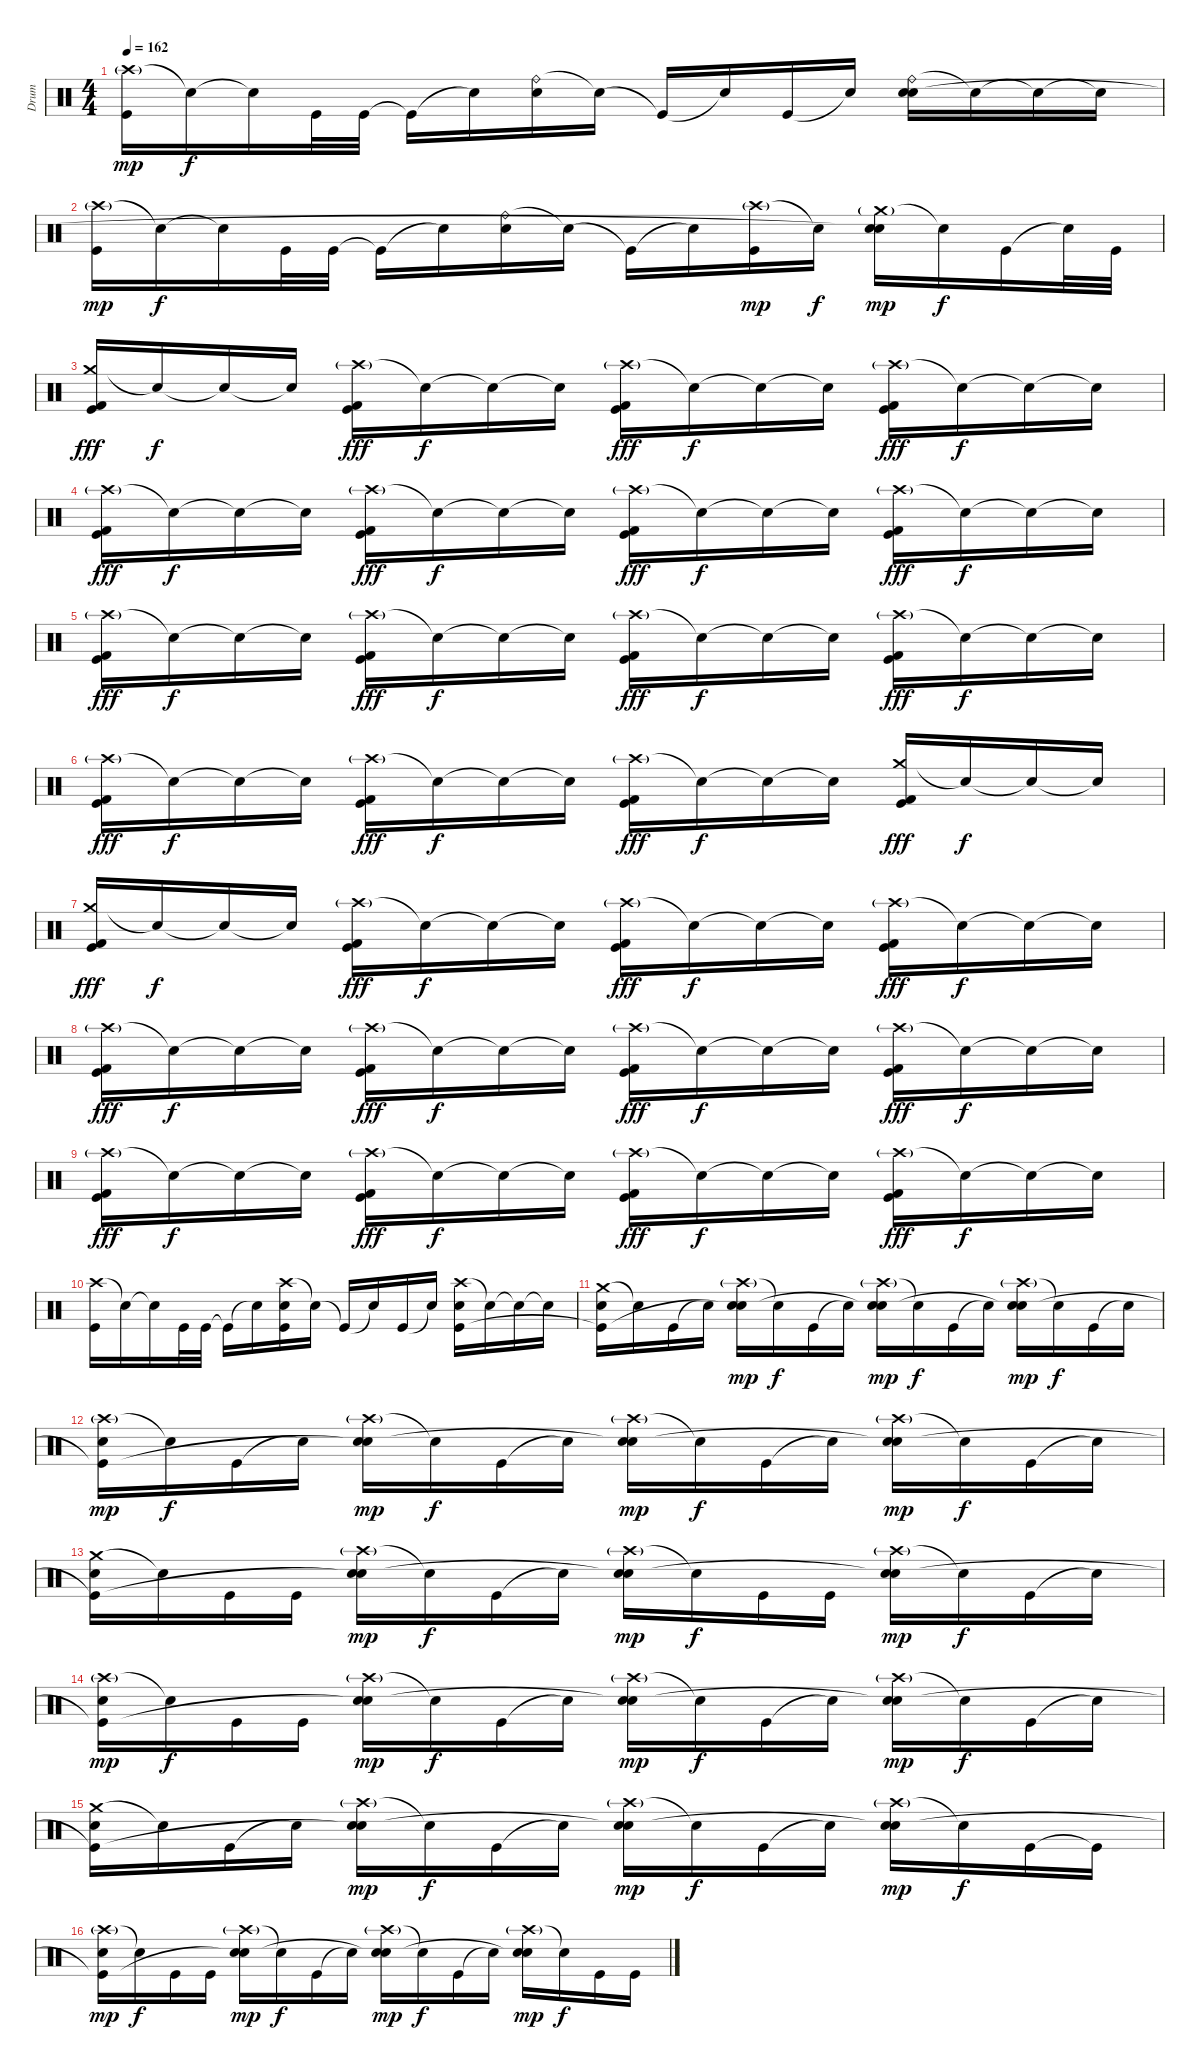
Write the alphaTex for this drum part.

\track ("Drum" "Drum") {instrument percussion}
\staff {score}
\articulation defaults
\ts (4 4)
\tempo 162
\clef neutral
\ks c
("Crash high (hit)"{g} "Kick (hit)").16{dy mp} "Snare (hit)"{t}.16{dy f} "Snare (hit)"{t}.16 "Kick (hit)".32 "Kick (hit)".32 "Kick (hit)"{t}.16 "Snare (hit)"{t}.16 ("Ride (bell)" "Electric Snare (hit)").16 "Snare (hit)"{t}.16 "Kick (hit)"{t}.16 "Snare (hit)"{t}.16 "Kick (hit)".16 "Snare (hit)"{t}.16 ("Ride (bell)" "Electric Snare (hit)" "Snare (hit)"{t}).16 "Snare (hit)"{t}.16 "Snare (hit)"{t}.16 "Snare (hit)"{t}.16 |
("Crash high (hit)"{g} "Kick (hit)").16{dy mp} "Snare (hit)"{t}.16{dy f} "Snare (hit)"{t}.16 "Kick (hit)".32 "Kick (hit)".32 "Kick (hit)"{t}.16 "Snare (hit)"{t}.16 ("Ride (bell)" "Electric Snare (hit)").16 "Snare (hit)"{t}.16 "Kick (hit)"{t}.16 "Snare (hit)"{t}.16 ("Crash high (hit)"{g} "Kick (hit)").16{dy mp} "Snare (hit)"{t}.16{dy f} ("Crash medium (hit)"{g} "Electric Snare (hit)" "Snare (hit)"{t}).16{dy mp} "Snare (hit)"{t}.16{dy f} "Kick (hit)".16 "Snare (hit)"{t}.32 "Kick (hit)".32 |
("Crash medium (hit)" "Kick (hit) 2" "Kick (hit)").16{dy fff} "Snare (hit)"{t}.16{dy f} "Snare (hit)"{t}.16 "Snare (hit)"{t}.16 ("Crash high (hit)"{g} "Kick (hit) 2" "Kick (hit)").16{dy fff} "Snare (hit)"{t}.16{dy f} "Snare (hit)"{t}.16 "Snare (hit)"{t}.16 ("Crash high (hit)"{g} "Kick (hit) 2" "Kick (hit)").16{dy fff} "Snare (hit)"{t}.16{dy f} "Snare (hit)"{t}.16 "Snare (hit)"{t}.16 ("Crash high (hit)"{g} "Kick (hit) 2" "Kick (hit)").16{dy fff} "Snare (hit)"{t}.16{dy f} "Snare (hit)"{t}.16 "Snare (hit)"{t}.16 |
("Crash high (hit)"{g} "Kick (hit) 2" "Kick (hit)").16{dy fff} "Snare (hit)"{t}.16{dy f} "Snare (hit)"{t}.16 "Snare (hit)"{t}.16 ("Crash high (hit)"{g} "Kick (hit) 2" "Kick (hit)").16{dy fff} "Snare (hit)"{t}.16{dy f} "Snare (hit)"{t}.16 "Snare (hit)"{t}.16 ("Crash high (hit)"{g} "Kick (hit) 2" "Kick (hit)").16{dy fff} "Snare (hit)"{t}.16{dy f} "Snare (hit)"{t}.16 "Snare (hit)"{t}.16 ("Crash high (hit)"{g} "Kick (hit) 2" "Kick (hit)").16{dy fff} "Snare (hit)"{t}.16{dy f} "Snare (hit)"{t}.16 "Snare (hit)"{t}.16 |
("Crash high (hit)"{g} "Kick (hit) 2" "Kick (hit)").16{dy fff} "Snare (hit)"{t}.16{dy f} "Snare (hit)"{t}.16 "Snare (hit)"{t}.16 ("Crash high (hit)"{g} "Kick (hit) 2" "Kick (hit)").16{dy fff} "Snare (hit)"{t}.16{dy f} "Snare (hit)"{t}.16 "Snare (hit)"{t}.16 ("Crash high (hit)"{g} "Kick (hit) 2" "Kick (hit)").16{dy fff} "Snare (hit)"{t}.16{dy f} "Snare (hit)"{t}.16 "Snare (hit)"{t}.16 ("Crash high (hit)"{g} "Kick (hit) 2" "Kick (hit)").16{dy fff} "Snare (hit)"{t}.16{dy f} "Snare (hit)"{t}.16 "Snare (hit)"{t}.16 |
("Crash high (hit)"{g} "Kick (hit) 2" "Kick (hit)").16{dy fff} "Snare (hit)"{t}.16{dy f} "Snare (hit)"{t}.16 "Snare (hit)"{t}.16 ("Crash high (hit)"{g} "Kick (hit) 2" "Kick (hit)").16{dy fff} "Snare (hit)"{t}.16{dy f} "Snare (hit)"{t}.16 "Snare (hit)"{t}.16 ("Crash high (hit)"{g} "Kick (hit) 2" "Kick (hit)").16{dy fff} "Snare (hit)"{t}.16{dy f} "Snare (hit)"{t}.16 "Snare (hit)"{t}.16 ("Crash medium (hit)" "Kick (hit) 2" "Kick (hit)").16{dy fff} "Snare (hit)"{t}.16{dy f} "Snare (hit)"{t}.16 "Snare (hit)"{t}.16 |
("Crash medium (hit)" "Kick (hit) 2" "Kick (hit)").16{dy fff} "Snare (hit)"{t}.16{dy f} "Snare (hit)"{t}.16 "Snare (hit)"{t}.16 ("Crash high (hit)"{g} "Kick (hit) 2" "Kick (hit)").16{dy fff} "Snare (hit)"{t}.16{dy f} "Snare (hit)"{t}.16 "Snare (hit)"{t}.16 ("Crash high (hit)"{g} "Kick (hit) 2" "Kick (hit)").16{dy fff} "Snare (hit)"{t}.16{dy f} "Snare (hit)"{t}.16 "Snare (hit)"{t}.16 ("Crash high (hit)"{g} "Kick (hit) 2" "Kick (hit)").16{dy fff} "Snare (hit)"{t}.16{dy f} "Snare (hit)"{t}.16 "Snare (hit)"{t}.16 |
("Crash high (hit)"{g} "Kick (hit) 2" "Kick (hit)").16{dy fff} "Snare (hit)"{t}.16{dy f} "Snare (hit)"{t}.16 "Snare (hit)"{t}.16 ("Crash high (hit)"{g} "Kick (hit) 2" "Kick (hit)").16{dy fff} "Snare (hit)"{t}.16{dy f} "Snare (hit)"{t}.16 "Snare (hit)"{t}.16 ("Crash high (hit)"{g} "Kick (hit) 2" "Kick (hit)").16{dy fff} "Snare (hit)"{t}.16{dy f} "Snare (hit)"{t}.16 "Snare (hit)"{t}.16 ("Crash high (hit)"{g} "Kick (hit) 2" "Kick (hit)").16{dy fff} "Snare (hit)"{t}.16{dy f} "Snare (hit)"{t}.16 "Snare (hit)"{t}.16 |
("Crash high (hit)"{g} "Kick (hit) 2" "Kick (hit)").16{dy fff} "Snare (hit)"{t}.16{dy f} "Snare (hit)"{t}.16 "Snare (hit)"{t}.16 ("Crash high (hit)"{g} "Kick (hit) 2" "Kick (hit)").16{dy fff} "Snare (hit)"{t}.16{dy f} "Snare (hit)"{t}.16 "Snare (hit)"{t}.16 ("Crash high (hit)"{g} "Kick (hit) 2" "Kick (hit)").16{dy fff} "Snare (hit)"{t}.16{dy f} "Snare (hit)"{t}.16 "Snare (hit)"{t}.16 ("Crash high (hit)"{g} "Kick (hit) 2" "Kick (hit)").16{dy fff} "Snare (hit)"{t}.16{dy f} "Snare (hit)"{t}.16 "Snare (hit)"{t}.16 |
("Crash high (hit)" "Kick (hit)").16 "Snare (hit)"{t}.16 "Snare (hit)"{t}.16 "Kick (hit)".32 "Kick (hit)".32 "Kick (hit)"{t}.16 "Snare (hit)"{t}.16 ("Crash high (hit)" "Electric Snare (hit)" "Kick (hit)").16 "Snare (hit)"{t}.16 "Kick (hit)"{t}.16 "Snare (hit)"{t}.16 "Kick (hit)".16 "Snare (hit)"{t}.16 ("Crash high (hit)" "Electric Snare (hit)" "Kick (hit)").16 "Snare (hit)"{t}.16 "Snare (hit)"{t}.16 "Snare (hit)"{t}.16 |
("Crash medium (hit)" "Electric Snare (hit)" "Kick (hit)"{t}).16 "Snare (hit)"{t}.16 "Kick (hit)".16 "Snare (hit)"{t}.16 ("Crash high (hit)"{g} "Electric Snare (hit)" "Snare (hit)"{t}).16{dy mp} "Snare (hit)"{t}.16{dy f} "Kick (hit)".16 "Snare (hit)"{t}.16 ("Crash high (hit)"{g} "Electric Snare (hit)" "Snare (hit)"{t}).16{dy mp} "Snare (hit)"{t}.16{dy f} "Kick (hit)".16 "Snare (hit)"{t}.16 ("Crash high (hit)"{g} "Electric Snare (hit)" "Snare (hit)"{t}).16{dy mp} "Snare (hit)"{t}.16{dy f} "Kick (hit)".16 "Snare (hit)"{t}.16 |
("Crash high (hit)"{g} "Electric Snare (hit)" "Kick (hit)"{t}).16{dy mp} "Snare (hit)"{t}.16{dy f} "Kick (hit)".16 "Snare (hit)"{t}.16 ("Crash high (hit)"{g} "Electric Snare (hit)" "Snare (hit)"{t}).16{dy mp} "Snare (hit)"{t}.16{dy f} "Kick (hit)".16 "Snare (hit)"{t}.16 ("Crash high (hit)"{g} "Electric Snare (hit)" "Snare (hit)"{t}).16{dy mp} "Snare (hit)"{t}.16{dy f} "Kick (hit)".16 "Snare (hit)"{t}.16 ("Crash high (hit)"{g} "Electric Snare (hit)" "Snare (hit)"{t}).16{dy mp} "Snare (hit)"{t}.16{dy f} "Kick (hit)".16 "Snare (hit)"{t}.16 |
("Crash medium (hit)" "Electric Snare (hit)" "Kick (hit)"{t}).16 "Snare (hit)"{t}.16 "Kick (hit)".16 "Kick (hit)".16 ("Crash high (hit)"{g} "Electric Snare (hit)" "Snare (hit)"{t}).16{dy mp} "Snare (hit)"{t}.16{dy f} "Kick (hit)".16 "Snare (hit)"{t}.16 ("Crash high (hit)"{g} "Electric Snare (hit)" "Snare (hit)"{t}).16{dy mp} "Snare (hit)"{t}.16{dy f} "Kick (hit)".16 "Kick (hit)".16 ("Crash high (hit)"{g} "Electric Snare (hit)" "Snare (hit)"{t}).16{dy mp} "Snare (hit)"{t}.16{dy f} "Kick (hit)".16 "Snare (hit)"{t}.16 |
("Crash high (hit)"{g} "Electric Snare (hit)" "Kick (hit)"{t}).16{dy mp} "Snare (hit)"{t}.16{dy f} "Kick (hit)".16 "Kick (hit)".16 ("Crash high (hit)"{g} "Electric Snare (hit)" "Snare (hit)"{t}).16{dy mp} "Snare (hit)"{t}.16{dy f} "Kick (hit)".16 "Snare (hit)"{t}.16 ("Crash high (hit)"{g} "Electric Snare (hit)" "Snare (hit)"{t}).16{dy mp} "Snare (hit)"{t}.16{dy f} "Kick (hit)".16 "Snare (hit)"{t}.16 ("Crash high (hit)"{g} "Electric Snare (hit)" "Snare (hit)"{t}).16{dy mp} "Snare (hit)"{t}.16{dy f} "Kick (hit)".16 "Snare (hit)"{t}.16 |
("Crash medium (hit)" "Electric Snare (hit)" "Kick (hit)"{t}).16 "Snare (hit)"{t}.16 "Kick (hit)".16 "Snare (hit)"{t}.16 ("Crash high (hit)"{g} "Electric Snare (hit)" "Snare (hit)"{t}).16{dy mp} "Snare (hit)"{t}.16{dy f} "Kick (hit)".16 "Snare (hit)"{t}.16 ("Crash high (hit)"{g} "Electric Snare (hit)" "Snare (hit)"{t}).16{dy mp} "Snare (hit)"{t}.16{dy f} "Kick (hit)".16 "Snare (hit)"{t}.16 ("Crash high (hit)"{g} "Electric Snare (hit)" "Snare (hit)"{t}).16{dy mp} "Snare (hit)"{t}.16{dy f} "Kick (hit)".16 "Kick (hit)"{t}.16 |
("Crash high (hit)"{g} "Electric Snare (hit)" "Kick (hit)"{t}).16{dy mp} "Snare (hit)"{t}.16{dy f} "Kick (hit)".16 "Kick (hit)".16 ("Crash high (hit)"{g} "Electric Snare (hit)" "Snare (hit)"{t}).16{dy mp} "Snare (hit)"{t}.16{dy f} "Kick (hit)".16 "Snare (hit)"{t}.16 ("Crash high (hit)"{g} "Electric Snare (hit)" "Snare (hit)"{t}).16{dy mp} "Snare (hit)"{t}.16{dy f} "Kick (hit)".16 "Snare (hit)"{t}.16 ("Crash high (hit)"{g} "Electric Snare (hit)" "Snare (hit)"{t}).16{dy mp} "Snare (hit)"{t}.16{dy f} "Kick (hit)".16 "Kick (hit)".16
